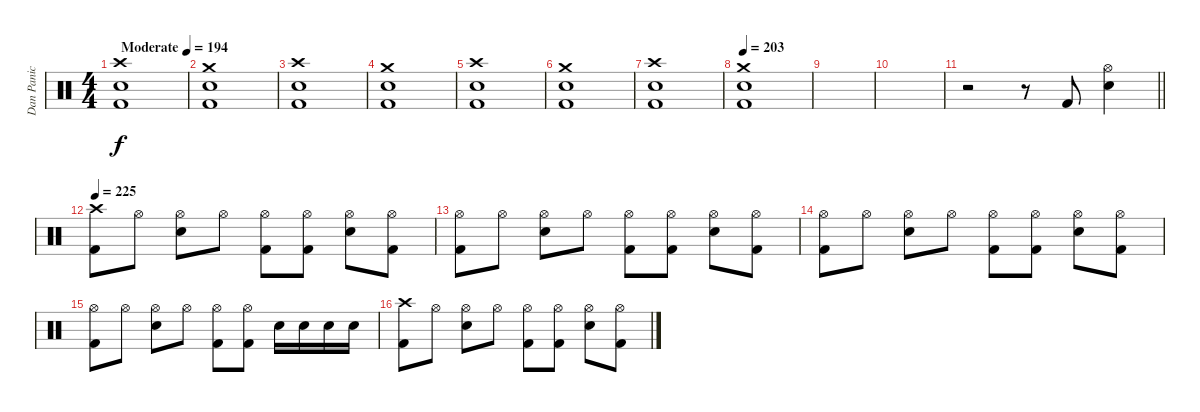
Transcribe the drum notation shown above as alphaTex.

\track ("Dan Panic" "Dan Panic") {instrument percussion}
\staff {score}
\articulation defaults
\ts (4 4)
\tempo (194 "Moderate")
\clef neutral
\ks c
("Crash high (hit)" "Electric Snare (hit)" "Kick (hit) 2").1{dy f} |
("Crash medium (hit)" "Electric Snare (hit)" "Kick (hit) 2").1 |
("Crash high (hit)" "Electric Snare (hit)" "Kick (hit) 2").1 |
("Crash medium (hit)" "Electric Snare (hit)" "Kick (hit) 2").1 |
("Crash high (hit)" "Electric Snare (hit)" "Kick (hit) 2").1 |
("Crash medium (hit)" "Electric Snare (hit)" "Kick (hit) 2").1 |
("Crash high (hit)" "Electric Snare (hit)" "Kick (hit) 2").1 |
\tempo 203
("Crash medium (hit)" "Electric Snare (hit)" "Kick (hit) 2").1 |
|
|
\barLineRight lightlight
r.2 r.8 "Kick (hit) 2".8 ("Hi-Hat (open)" "Electric Snare (hit)").4 |
\section ("" "")
\tempo 225
("Crash high (hit)" "Kick (hit) 2").8 "Hi-Hat (open)".8 ("Hi-Hat (open)" "Electric Snare (hit)").8 "Hi-Hat (open)".8 ("Hi-Hat (open)" "Kick (hit) 2").8 ("Hi-Hat (open)" "Kick (hit) 2").8 ("Hi-Hat (open)" "Electric Snare (hit)").8 ("Hi-Hat (open)" "Kick (hit) 2").8 |
("Hi-Hat (open)" "Kick (hit) 2").8 "Hi-Hat (open)".8 ("Hi-Hat (open)" "Electric Snare (hit)").8 "Hi-Hat (open)".8 ("Hi-Hat (open)" "Kick (hit) 2").8 ("Hi-Hat (open)" "Kick (hit) 2").8 ("Hi-Hat (open)" "Electric Snare (hit)").8 ("Hi-Hat (open)" "Kick (hit) 2").8 |
("Hi-Hat (open)" "Kick (hit) 2").8 "Hi-Hat (open)".8 ("Hi-Hat (open)" "Electric Snare (hit)").8 "Hi-Hat (open)".8 ("Hi-Hat (open)" "Kick (hit) 2").8 ("Hi-Hat (open)" "Kick (hit) 2").8 ("Hi-Hat (open)" "Electric Snare (hit)").8 ("Hi-Hat (open)" "Kick (hit) 2").8 |
("Hi-Hat (open)" "Kick (hit) 2").8 "Hi-Hat (open)".8 ("Hi-Hat (open)" "Electric Snare (hit)").8 "Hi-Hat (open)".8 ("Hi-Hat (open)" "Kick (hit) 2").8 ("Hi-Hat (open)" "Kick (hit) 2").8 "Electric Snare (hit)".16 "Electric Snare (hit)".16 "Electric Snare (hit)".16 "Electric Snare (hit)".16 |
("Crash high (hit)" "Kick (hit) 2").8 "Hi-Hat (open)".8 ("Hi-Hat (open)" "Electric Snare (hit)").8 "Hi-Hat (open)".8 ("Hi-Hat (open)" "Kick (hit) 2").8 ("Hi-Hat (open)" "Kick (hit) 2").8 ("Hi-Hat (open)" "Electric Snare (hit)").8 ("Hi-Hat (open)" "Kick (hit) 2").8
